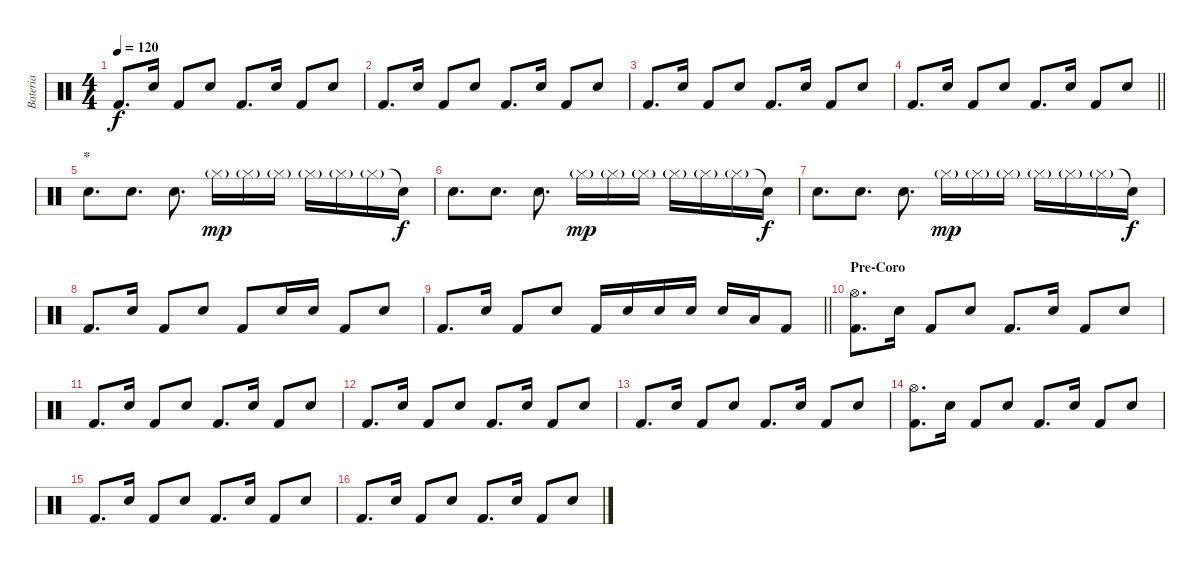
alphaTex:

\track ("Bateria" "Bateria") {instrument percussion}
\staff {score}
\articulation defaults
\ts (4 4)
\tempo 120
\clef neutral
\ks c "Kick (hit) 2".8{d dy f} "Snare (hit) 2".16 "Kick (hit) 2".8 "Snare (hit) 2".8 "Kick (hit) 2".8{d} "Snare (hit) 2".16 "Kick (hit) 2".8 "Snare (hit) 2".8
|
"Kick (hit) 2".8{d} "Snare (hit) 2".16 "Kick (hit) 2".8 "Snare (hit) 2".8 "Kick (hit) 2".8{d} "Snare (hit) 2".16 "Kick (hit) 2".8 "Snare (hit) 2".8 |
"Kick (hit) 2".8{d} "Snare (hit) 2".16 "Kick (hit) 2".8 "Snare (hit) 2".8 "Kick (hit) 2".8{d} "Snare (hit) 2".16 "Kick (hit) 2".8 "Snare (hit) 2".8 |
\barLineRight lightlight "Kick (hit) 2".8{d} "Snare (hit) 2".16 "Kick (hit) 2".8 "Snare (hit) 2".8 "Kick (hit) 2".8{d} "Snare (hit) 2".16 "Kick (hit) 2".8 "Snare (hit) 2".8
|
\section ("" "*")
"Electric Snare (hit)".8{d} "Electric Snare (hit)".8{d} "Snare (hit) 2".8{d} "Hi-Hat (closed)"{g}.16{dy mp} "Hi-Hat (closed)"{g}.16 "Hi-Hat (closed)"{g}.16 "Hi-Hat (closed)"{g}.16 "Hi-Hat (closed)"{g}.16 "Hi-Hat (closed)"{g}.16 "Snare (hit)"{t}.16{dy f} |
"Electric Snare (hit)".8{d} "Electric Snare (hit)".8{d} "Snare (hit) 2".8{d} "Hi-Hat (closed)"{g}.16{dy mp} "Hi-Hat (closed)"{g}.16 "Hi-Hat (closed)"{g}.16 "Hi-Hat (closed)"{g}.16 "Hi-Hat (closed)"{g}.16 "Hi-Hat (closed)"{g}.16 "Snare (hit)"{t}.16{dy f} |
"Electric Snare (hit)".8{d} "Electric Snare (hit)".8{d} "Snare (hit) 2".8{d} "Hi-Hat (closed)"{g}.16{dy mp} "Hi-Hat (closed)"{g}.16 "Hi-Hat (closed)"{g}.16 "Hi-Hat (closed)"{g}.16 "Hi-Hat (closed)"{g}.16 "Hi-Hat (closed)"{g}.16 "Snare (hit)"{t}.16{dy f} |
"Kick (hit) 2".8{d} "Snare (hit) 2".16 "Kick (hit) 2".8 "Snare (hit) 2".8 "Kick (hit) 2".8 "Snare (hit) 2".16 "Snare (hit) 2".16 "Kick (hit) 2".8 "Snare (hit) 2".8 |
\barLineRight lightlight "Kick (hit) 2".8{d} "Snare (hit) 2".16 "Kick (hit) 2".8 "Snare (hit) 2".8 "Kick (hit) 2".16 "Snare (hit) 2".16 "Snare (hit) 2".16 "Snare (hit) 2".16 "Snare (hit) 2".16 "Low Floor Tom (hit)".16 "Kick (hit) 2".8
|
\section ("" "Pre-Coro")
("Hi-Hat (open)" "Kick (hit) 2").8{d} "Snare (hit) 2".16 "Kick (hit) 2".8 "Snare (hit) 2".8 "Kick (hit) 2".8{d} "Snare (hit) 2".16 "Kick (hit) 2".8 "Snare (hit) 2".8 |
"Kick (hit) 2".8{d} "Snare (hit) 2".16 "Kick (hit) 2".8 "Snare (hit) 2".8 "Kick (hit) 2".8{d} "Snare (hit) 2".16 "Kick (hit) 2".8 "Snare (hit) 2".8 |
"Kick (hit) 2".8{d} "Snare (hit) 2".16 "Kick (hit) 2".8 "Snare (hit) 2".8 "Kick (hit) 2".8{d} "Snare (hit) 2".16 "Kick (hit) 2".8 "Snare (hit) 2".8 |
"Kick (hit) 2".8{d} "Snare (hit) 2".16 "Kick (hit) 2".8 "Snare (hit) 2".8 "Kick (hit) 2".8{d} "Snare (hit) 2".16 "Kick (hit) 2".8 "Snare (hit) 2".8 |
("Hi-Hat (open)" "Kick (hit) 2").8{d} "Snare (hit) 2".16 "Kick (hit) 2".8 "Snare (hit) 2".8 "Kick (hit) 2".8{d} "Snare (hit) 2".16 "Kick (hit) 2".8 "Snare (hit) 2".8 |
"Kick (hit) 2".8{d} "Snare (hit) 2".16 "Kick (hit) 2".8 "Snare (hit) 2".8 "Kick (hit) 2".8{d} "Snare (hit) 2".16 "Kick (hit) 2".8 "Snare (hit) 2".8 |
"Kick (hit) 2".8{d} "Snare (hit) 2".16 "Kick (hit) 2".8 "Snare (hit) 2".8 "Kick (hit) 2".8{d} "Snare (hit) 2".16 "Kick (hit) 2".8 "Snare (hit) 2".8
